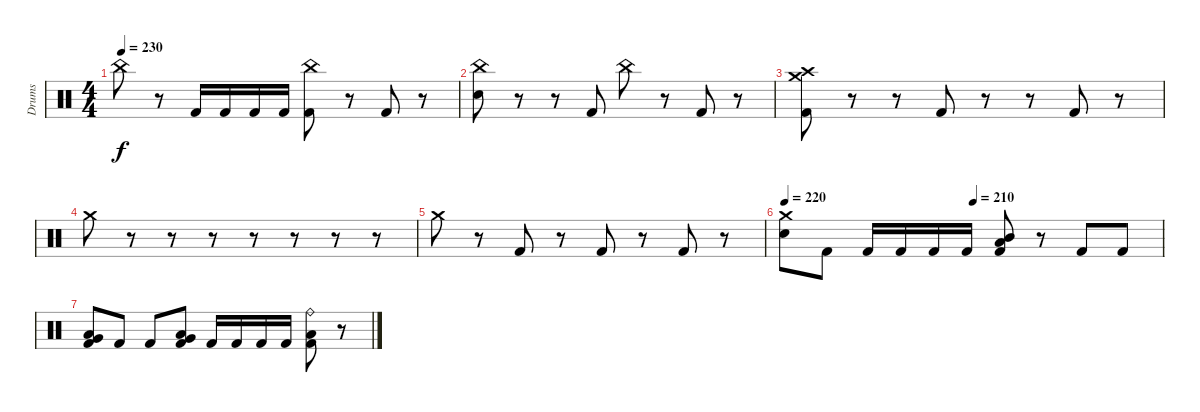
\track ("Drums" "Drums") {instrument percussion}
\staff
\articulation defaults
\ts (4 4)
\tempo 230
\clef neutral
\ks c "China (hit)".8{dy f}
r.8 "Kick (hit) 2".16 "Kick (hit) 2".16 "Kick (hit) 2".16 "Kick (hit) 2".16 ("China (hit)" "Kick (hit) 2").8 r.8 "Kick (hit) 2".8 r.8 |
("China (hit)" "Electric Snare (hit)").8 r.8 r.8 "Kick (hit) 2".8 "China (hit)".8 r.8 "Kick (hit) 2".8 r.8 |
("Crash medium (hit)" "Crash high (hit)" "Kick (hit) 2").8 r.8 r.8 "Kick (hit) 2".8 r.8 r.8 "Kick (hit) 2".8 r.8 |
"Crash medium (hit)".8 r.8 r.8 r.8 r.8 r.8 r.8 r.8 |
"Crash medium (hit)".8 r.8 "Kick (hit) 2".8 r.8 "Kick (hit) 2".8 r.8 "Kick (hit) 2".8 r.8 |
\tempo 220
\tempo (210 0.5)
("Crash medium (hit)" "Electric Snare (hit)").8 "Kick (hit) 2".8 "Kick (hit) 2".16 "Kick (hit) 2".16 "Kick (hit) 2".16 "Kick (hit) 2".16 ("Mid Tom (hit)" "Low Tom (hit)" "Kick (hit) 2").8 r.8 "Kick (hit) 2".8 "Kick (hit) 2".8 |
("Low Floor Tom (hit)" "Very Low Tom (hit)" "Kick (hit) 2").8 "Kick (hit) 2".8 "Kick (hit) 2".8 ("Low Floor Tom (hit)" "Very Low Tom (hit)" "Kick (hit) 2").8 "Kick (hit) 2".16 "Kick (hit) 2".16 "Kick (hit) 2".16 "Kick (hit) 2".16 ("Ride (bell)" "Low Floor Tom (hit)" "Kick (hit) 2").8 r.8
